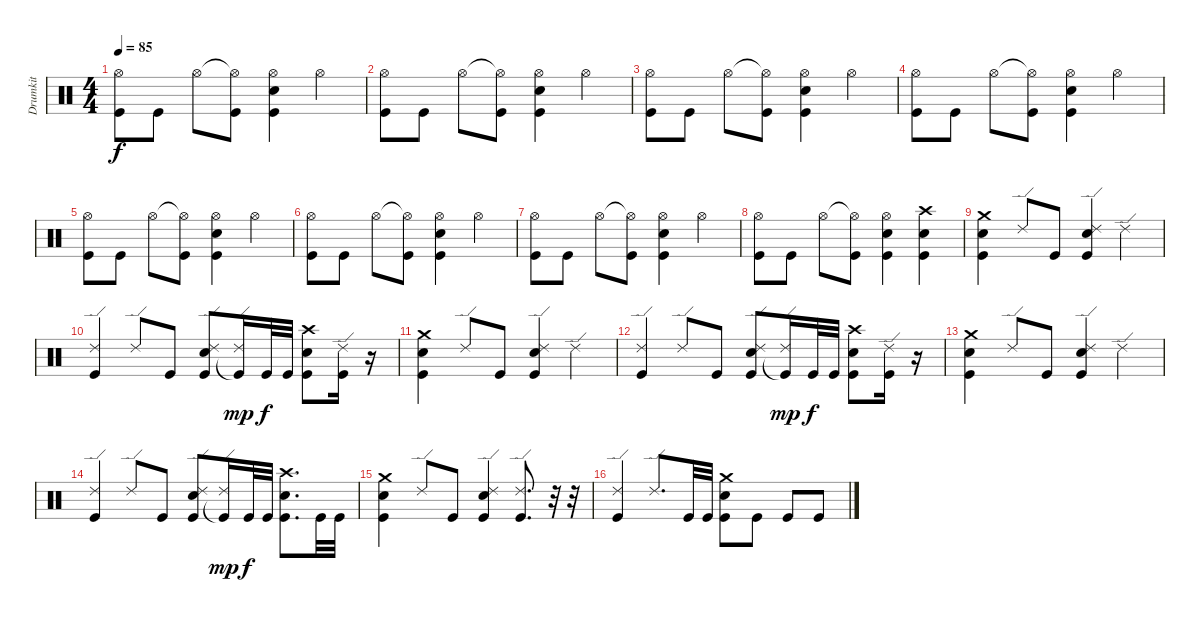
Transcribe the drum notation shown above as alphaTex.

\track ("Drumkit" "Drumkit") {instrument percussion}
\staff {score}
\articulation defaults
\ts (4 4)
\tempo 85
\clef neutral
\ks c
("Hi-Hat (open)" "Kick (hit)").8{dy f} "Kick (hit)".8 "Hi-Hat (open)".8 ("Hi-Hat (open)"{t} "Kick (hit)").8 ("Hi-Hat (open)" "Snare (hit) 2" "Kick (hit)").4 "Hi-Hat (open)".4 |
("Hi-Hat (open)" "Kick (hit)").8 "Kick (hit)".8 "Hi-Hat (open)".8 ("Hi-Hat (open)"{t} "Kick (hit)").8 ("Hi-Hat (open)" "Snare (hit) 2" "Kick (hit)").4 "Hi-Hat (open)".4 |
("Hi-Hat (open)" "Kick (hit)").8 "Kick (hit)".8 "Hi-Hat (open)".8 ("Hi-Hat (open)"{t} "Kick (hit)").8 ("Hi-Hat (open)" "Snare (hit) 2" "Kick (hit)").4 "Hi-Hat (open)".4 |
("Hi-Hat (open)" "Kick (hit)").8 "Kick (hit)".8 "Hi-Hat (open)".8 ("Hi-Hat (open)"{t} "Kick (hit)").8 ("Hi-Hat (open)" "Snare (hit) 2" "Kick (hit)").4 "Hi-Hat (open)".4 |
("Hi-Hat (open)" "Kick (hit)").8 "Kick (hit)".8 "Hi-Hat (open)".8 ("Hi-Hat (open)"{t} "Kick (hit)").8 ("Hi-Hat (open)" "Snare (hit) 2" "Kick (hit)").4 "Hi-Hat (open)".4 |
("Hi-Hat (open)" "Kick (hit)").8 "Kick (hit)".8 "Hi-Hat (open)".8 ("Hi-Hat (open)"{t} "Kick (hit)").8 ("Hi-Hat (open)" "Snare (hit) 2" "Kick (hit)").4 "Hi-Hat (open)".4 |
("Hi-Hat (open)" "Kick (hit)").8 "Kick (hit)".8 "Hi-Hat (open)".8 ("Hi-Hat (open)"{t} "Kick (hit)").8 ("Hi-Hat (open)" "Snare (hit) 2" "Kick (hit)").4 "Hi-Hat (open)".4 |
("Hi-Hat (open)" "Kick (hit)").8 "Kick (hit)".8 "Hi-Hat (open)".8 ("Hi-Hat (open)"{t} "Kick (hit)").8 ("Hi-Hat (open)" "Snare (hit) 2" "Kick (hit)").4 ("Crash high (hit)" "Snare (hit) 2" "Kick (hit)").4 |
("Crash medium (hit)" "Snare (hit) 2" "Kick (hit)").4 "Ride (edge) 2".8 "Kick (hit)".8 ("Ride (edge) 2" "Snare (hit) 2" "Kick (hit)").4 "Ride (edge) 2".4 |
("Ride (edge) 2" "Kick (hit)").4 "Ride (edge) 2".8 "Kick (hit)".8 ("Ride (edge) 2" "Snare (hit) 2" "Kick (hit)").8 ("Ride (edge) 2" "Kick (hit)"{t}).16{dy mp} "Kick (hit)".32{dy f} "Kick (hit)".32 ("Crash high (hit)" "Snare (hit) 2" "Kick (hit)").8 ("Ride (edge) 2" "Kick (hit)").16 r.16 |
("Crash medium (hit)" "Snare (hit) 2" "Kick (hit)").4 "Ride (edge) 2".8 "Kick (hit)".8 ("Ride (edge) 2" "Snare (hit) 2" "Kick (hit)").4 "Ride (edge) 2".4 |
("Ride (edge) 2" "Kick (hit)").4 "Ride (edge) 2".8 "Kick (hit)".8 ("Ride (edge) 2" "Snare (hit) 2" "Kick (hit)").8 ("Ride (edge) 2" "Kick (hit)"{t}).16{dy mp} "Kick (hit)".32{dy f} "Kick (hit)".32 ("Crash high (hit)" "Snare (hit) 2" "Kick (hit)").8 ("Ride (edge) 2" "Kick (hit)").16 r.16 |
("Crash medium (hit)" "Snare (hit) 2" "Kick (hit)").4 "Ride (edge) 2".8 "Kick (hit)".8 ("Ride (edge) 2" "Snare (hit) 2" "Kick (hit)").4 "Ride (edge) 2".4 |
("Ride (edge) 2" "Kick (hit)").4 "Ride (edge) 2".8 "Kick (hit)".8 ("Ride (edge) 2" "Snare (hit) 2" "Kick (hit)").8 ("Ride (edge) 2" "Kick (hit)"{t}).16{dy mp} "Kick (hit)".32{dy f} "Kick (hit)".32 ("Crash high (hit)" "Snare (hit) 2" "Kick (hit)").8{d} "Kick (hit)".32 "Kick (hit)".32 |
("Crash medium (hit)" "Snare (hit) 2" "Kick (hit)").4 "Ride (edge) 2".8 "Kick (hit)".8 ("Ride (edge) 2" "Snare (hit) 2" "Kick (hit)").4 ("Ride (edge) 2" "Kick (hit)").8{d} r.32 r.32 |
("Ride (edge) 2" "Kick (hit)").4 "Ride (edge) 2".8{d} "Kick (hit)".32 "Kick (hit)".32 ("Crash medium (hit)" "Snare (hit) 2" "Kick (hit)").8 "Kick (hit)".8 "Kick (hit)".8 "Kick (hit)".8
